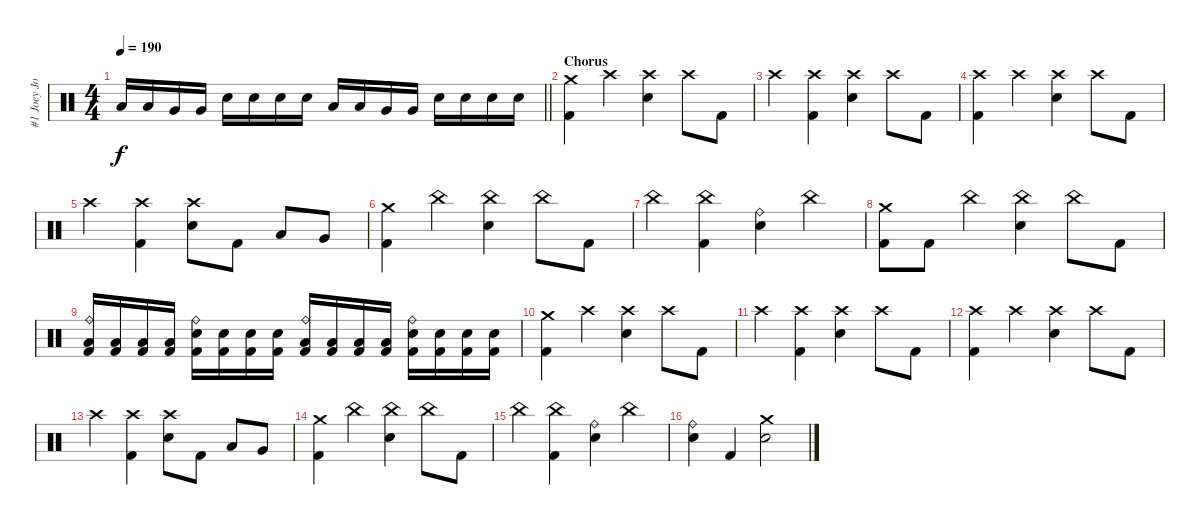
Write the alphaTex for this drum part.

\track ("#1 Joey Jordison" "#1 Joey Jo") {instrument percussion}
\staff {score}
\articulation defaults
\ts (4 4)
\tempo 190
\clef neutral
\barLineRight lightlight
\ks c "Low Tom (hit)".16{dy f} "Low Tom (hit)".16 "Very Low Tom (hit)".16 "Very Low Tom (hit)".16 "Electric Snare (hit)".16 "Electric Snare (hit)".16 "Electric Snare (hit)".16 "Electric Snare (hit)".16 "Low Tom (hit)".16 "Low Tom (hit)".16 "Very Low Tom (hit)".16 "Very Low Tom (hit)".16 "Electric Snare (hit)".16 "Electric Snare (hit)".16 "Electric Snare (hit)".16 "Electric Snare (hit)".16
|
\section ("" "Chorus")
("Crash medium (hit)" "Kick (hit) 2").4 "Crash high (hit)".4 ("Crash high (hit)" "Electric Snare (hit)").4 "Crash high (hit)".8 "Kick (hit) 2".8 |
"Crash high (hit)".4 ("Crash high (hit)" "Kick (hit) 2").4 ("Crash high (hit)" "Electric Snare (hit)").4 "Crash high (hit)".8 "Kick (hit) 2".8 |
("Crash high (hit)" "Kick (hit) 2").4 "Crash high (hit)".4 ("Crash high (hit)" "Electric Snare (hit)").4 "Crash high (hit)".8 "Kick (hit) 2".8 |
"Crash high (hit)".4 ("Crash high (hit)" "Kick (hit) 2").4 ("Crash high (hit)" "Electric Snare (hit)").8 "Kick (hit) 2".8 "Low Tom (hit)".8 "Very Low Tom (hit)".8 |
("Crash medium (hit)" "Kick (hit) 2").4 "China (hit)".4 ("China (hit)" "Electric Snare (hit)").4 "China (hit)".8 "Kick (hit) 2".8 |
"China (hit)".4 ("China (hit)" "Kick (hit) 2").4 ("Ride (bell)" "Electric Snare (hit)").4 "China (hit)".4 |
("Crash medium (hit)" "Kick (hit) 2").8 "Kick (hit) 2".8 "China (hit)".4 ("China (hit)" "Electric Snare (hit)").4 "China (hit)".8 "Kick (hit) 2".8 |
("Ride (bell)" "Low Floor Tom (hit)" "Kick (hit) 2").16 ("Low Floor Tom (hit)" "Kick (hit) 2").16 ("Low Floor Tom (hit)" "Kick (hit) 2").16 ("Low Floor Tom (hit)" "Kick (hit) 2").16 ("Ride (bell)" "Electric Snare (hit)" "Kick (hit) 2").16 ("Electric Snare (hit)" "Kick (hit) 2").16 ("Electric Snare (hit)" "Kick (hit) 2").16 ("Electric Snare (hit)" "Kick (hit) 2").16 ("Ride (bell)" "Low Floor Tom (hit)" "Kick (hit) 2").16 ("Low Floor Tom (hit)" "Kick (hit) 2").16 ("Low Floor Tom (hit)" "Kick (hit) 2").16 ("Low Floor Tom (hit)" "Kick (hit) 2").16 ("Ride (bell)" "Electric Snare (hit)" "Kick (hit) 2").16 ("Electric Snare (hit)" "Kick (hit) 2").16 ("Electric Snare (hit)" "Kick (hit) 2").16 ("Electric Snare (hit)" "Kick (hit) 2").16 |
("Crash medium (hit)" "Kick (hit) 2").4 "Crash high (hit)".4 ("Crash high (hit)" "Electric Snare (hit)").4 "Crash high (hit)".8 "Kick (hit) 2".8 |
"Crash high (hit)".4 ("Crash high (hit)" "Kick (hit) 2").4 ("Crash high (hit)" "Electric Snare (hit)").4 "Crash high (hit)".8 "Kick (hit) 2".8 |
("Crash high (hit)" "Kick (hit) 2").4 "Crash high (hit)".4 ("Crash high (hit)" "Electric Snare (hit)").4 "Crash high (hit)".8 "Kick (hit) 2".8 |
"Crash high (hit)".4 ("Crash high (hit)" "Kick (hit) 2").4 ("Crash high (hit)" "Electric Snare (hit)").8 "Kick (hit) 2".8 "Low Tom (hit)".8 "Very Low Tom (hit)".8 |
("Crash medium (hit)" "Kick (hit) 2").4 "China (hit)".4 ("China (hit)" "Electric Snare (hit)").4 "China (hit)".8 "Kick (hit) 2".8 |
"China (hit)".4 ("China (hit)" "Kick (hit) 2").4 ("Ride (bell)" "Electric Snare (hit)").4 "China (hit)".4 |
("Ride (bell)" "Electric Snare (hit)").4 "Kick (hit) 2".4 ("Crash medium (hit)" "Electric Snare (hit)").2
